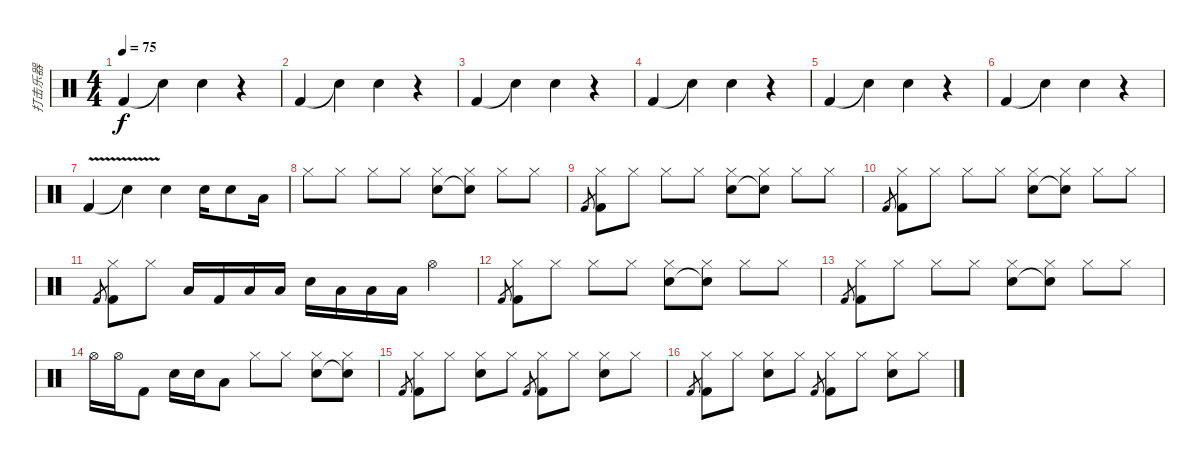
\track ("打击乐器" "打击乐器") {instrument percussion}
\staff {score}
\articulation defaults
\ts (4 4)
\tempo 75
\clef neutral
\ks c "Kick (hit) 2".4{dy f} "Snare (hit)"{t}.4 "Electric Snare (hit)".4
r.4 |
"Kick (hit) 2".4 "Snare (hit)"{t}.4 "Electric Snare (hit)".4 r.4 |
"Kick (hit) 2".4 "Snare (hit)"{t}.4 "Electric Snare (hit)".4 r.4 |
"Kick (hit) 2".4 "Snare (hit)"{t}.4 "Electric Snare (hit)".4 r.4 |
"Kick (hit) 2".4 "Snare (hit)"{t}.4 "Electric Snare (hit)".4 r.4 |
"Kick (hit) 2".4 "Snare (hit)"{t}.4 "Electric Snare (hit)".4 r.4 |
"Kick (hit) 2"{v}.4 "Snare (hit)"{t}.4 "Electric Snare (hit)".4 "Electric Snare (hit)".16{volume 14} "Electric Snare (hit)".8 "Low Floor Tom (hit)".16 |
"Hi-Hat (closed)".8{volume 14} "Hi-Hat (closed)".8 "Hi-Hat (closed)".8 "Hi-Hat (closed)".8 ("Hi-Hat (closed)" "Electric Snare (hit)").8 ("Hi-Hat (closed)" "Snare (hit)"{t}).8 "Hi-Hat (closed)".8 "Hi-Hat (closed)".8 |
"Kick (hit) 2".8{gr} ("Hi-Hat (closed)" "Kick (hit) 2").8 "Hi-Hat (closed)".8 "Hi-Hat (closed)".8 "Hi-Hat (closed)".8 ("Hi-Hat (closed)" "Electric Snare (hit)").8 ("Hi-Hat (closed)" "Snare (hit)"{t}).8 "Hi-Hat (closed)".8 "Hi-Hat (closed)".8 |
"Kick (hit) 2".8{gr} ("Hi-Hat (closed)" "Kick (hit) 2").8 "Hi-Hat (closed)".8 "Hi-Hat (closed)".8 "Hi-Hat (closed)".8 ("Hi-Hat (closed)" "Electric Snare (hit)").8 ("Hi-Hat (closed)" "Snare (hit)"{t}).8 "Hi-Hat (closed)".8 "Hi-Hat (closed)".8 |
"Kick (hit) 2".8{gr} ("Hi-Hat (closed)" "Kick (hit) 2").8 "Hi-Hat (closed)".8 "Low Floor Tom (hit)".16 "Kick (hit) 2".16 "Low Floor Tom (hit)".16 "Low Tom (hit)".16 "Snare (hit) 2".16 "Low Floor Tom (hit)".16 "Low Tom (hit)".16 "Low Floor Tom (hit)".16 "Hi-Hat (open)".4 |
"Kick (hit) 2".8{gr} ("Hi-Hat (closed)" "Kick (hit) 2").8 "Hi-Hat (closed)".8 "Hi-Hat (closed)".8 "Hi-Hat (closed)".8 ("Hi-Hat (closed)" "Electric Snare (hit)").8 ("Hi-Hat (closed)" "Snare (hit)"{t}).8 "Hi-Hat (closed)".8 "Hi-Hat (closed)".8 |
"Kick (hit) 2".8{gr} ("Hi-Hat (closed)" "Kick (hit) 2").8 "Hi-Hat (closed)".8 "Hi-Hat (closed)".8 "Hi-Hat (closed)".8 ("Hi-Hat (closed)" "Electric Snare (hit)").8 ("Hi-Hat (closed)" "Snare (hit)"{t}).8 "Hi-Hat (closed)".8 "Hi-Hat (closed)".8 |
"Hi-Hat (open)".16 "Hi-Hat (open)".16 "Kick (hit) 2".8 "Snare (hit) 2".16 "Snare (hit) 2".16 "Low Tom (hit)".8 "Hi-Hat (closed)".8 "Hi-Hat (closed)".8 ("Hi-Hat (closed)" "Electric Snare (hit)").8 ("Hi-Hat (closed)" "Snare (hit)"{t}).8 |
"Kick (hit) 2".8{gr} ("Hi-Hat (closed)" "Kick (hit) 2").8 "Hi-Hat (closed)".8 ("Hi-Hat (closed)" "Electric Snare (hit)").8 "Hi-Hat (closed)".8 "Kick (hit) 2".8{gr} ("Hi-Hat (closed)" "Kick (hit) 2").8 "Hi-Hat (closed)".8 ("Hi-Hat (closed)" "Electric Snare (hit)").8 "Hi-Hat (closed)".8 |
"Kick (hit) 2".8{gr} ("Hi-Hat (closed)" "Kick (hit) 2").8 "Hi-Hat (closed)".8 ("Hi-Hat (closed)" "Electric Snare (hit)").8 "Hi-Hat (closed)".8 "Kick (hit) 2".8{gr} ("Hi-Hat (closed)" "Kick (hit) 2").8 "Hi-Hat (closed)".8 ("Hi-Hat (closed)" "Electric Snare (hit)").8 "Hi-Hat (closed)".8
